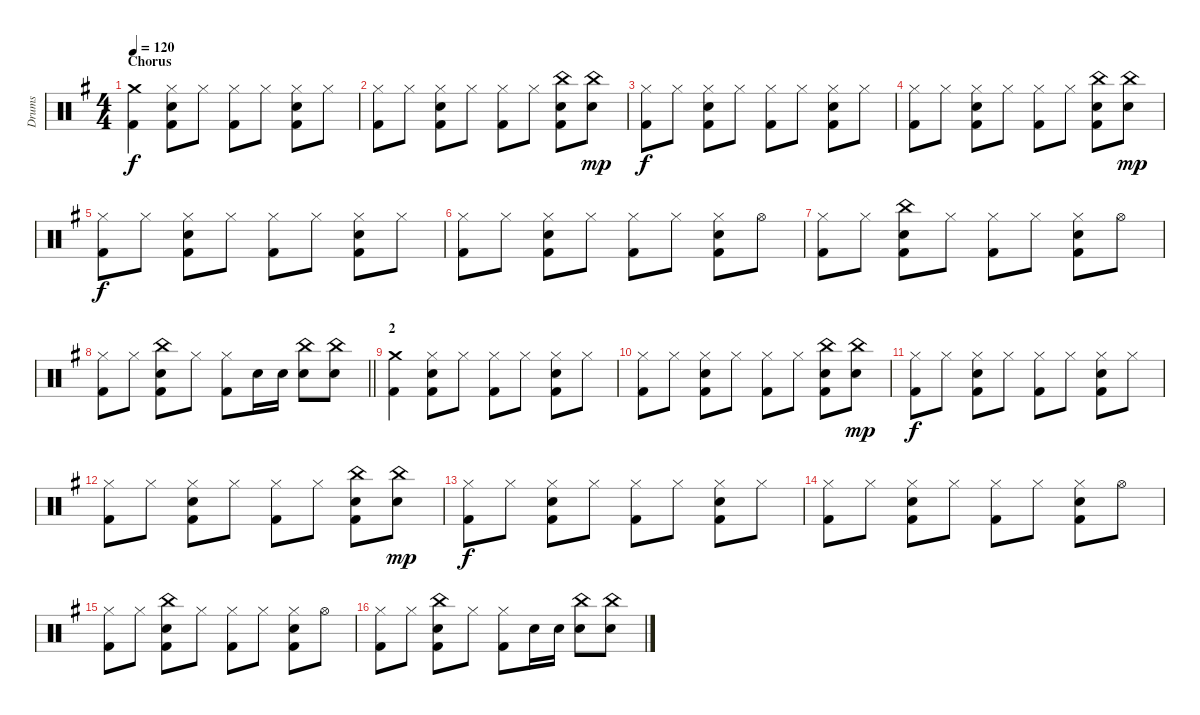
\track ("Drums" "Drums") {instrument percussion}
\staff {score}
\articulation defaults
\ts (4 4)
\section ("" "Chorus")
\tempo 120
\clef neutral
\ks g
("Crash medium (hit)" "Kick (hit) 2").4{dy f} ("Hi-Hat (closed)" "Electric Snare (hit)" "Kick (hit) 2").8 "Hi-Hat (closed)".8 ("Hi-Hat (closed)" "Kick (hit) 2").8 "Hi-Hat (closed)".8 ("Hi-Hat (closed)" "Electric Snare (hit)" "Kick (hit) 2").8 "Hi-Hat (closed)".8 |
("Hi-Hat (closed)" "Kick (hit) 2").8 "Hi-Hat (closed)".8 ("Hi-Hat (closed)" "Electric Snare (hit)" "Kick (hit) 2").8 "Hi-Hat (closed)".8 ("Hi-Hat (closed)" "Kick (hit) 2").8 "Hi-Hat (closed)".8 ("China (hit)" "Electric Snare (hit)" "Kick (hit) 2").8 ("China (hit)" "Electric Snare (hit)").8{dy mp} |
("Hi-Hat (closed)" "Kick (hit) 2").8{dy f} "Hi-Hat (closed)".8 ("Hi-Hat (closed)" "Electric Snare (hit)" "Kick (hit) 2").8 "Hi-Hat (closed)".8 ("Hi-Hat (closed)" "Kick (hit) 2").8 "Hi-Hat (closed)".8 ("Hi-Hat (closed)" "Electric Snare (hit)" "Kick (hit) 2").8 "Hi-Hat (closed)".8 |
("Hi-Hat (closed)" "Kick (hit) 2").8 "Hi-Hat (closed)".8 ("Hi-Hat (closed)" "Electric Snare (hit)" "Kick (hit) 2").8 "Hi-Hat (closed)".8 ("Hi-Hat (closed)" "Kick (hit) 2").8 "Hi-Hat (closed)".8 ("China (hit)" "Electric Snare (hit)" "Kick (hit) 2").8 ("China (hit)" "Electric Snare (hit)").8{dy mp} |
("Hi-Hat (closed)" "Kick (hit) 2").8{dy f} "Hi-Hat (closed)".8 ("Hi-Hat (closed)" "Electric Snare (hit)" "Kick (hit) 2").8 "Hi-Hat (closed)".8 ("Hi-Hat (closed)" "Kick (hit) 2").8 "Hi-Hat (closed)".8 ("Hi-Hat (closed)" "Electric Snare (hit)" "Kick (hit) 2").8 "Hi-Hat (closed)".8 |
("Hi-Hat (closed)" "Kick (hit) 2").8 "Hi-Hat (closed)".8 ("Hi-Hat (closed)" "Electric Snare (hit)" "Kick (hit) 2").8 "Hi-Hat (closed)".8 ("Hi-Hat (closed)" "Kick (hit) 2").8 "Hi-Hat (closed)".8 ("Hi-Hat (closed)" "Electric Snare (hit)" "Kick (hit) 2").8 "Hi-Hat (open)".8 |
("Hi-Hat (closed)" "Kick (hit) 2").8 "Hi-Hat (closed)".8 ("China (hit)" "Electric Snare (hit)" "Kick (hit) 2").8 "Hi-Hat (closed)".8 ("Hi-Hat (closed)" "Kick (hit) 2").8 "Hi-Hat (closed)".8 ("Hi-Hat (closed)" "Electric Snare (hit)" "Kick (hit) 2").8 "Hi-Hat (open)".8 |
\barLineRight lightlight
("Hi-Hat (closed)" "Kick (hit) 2").8 "Hi-Hat (closed)".8 ("China (hit)" "Electric Snare (hit)" "Kick (hit) 2").8 "Hi-Hat (closed)".8 ("Hi-Hat (closed)" "Kick (hit) 2").8 "Electric Snare (hit)".16 "Electric Snare (hit)".16 ("China (hit)" "Electric Snare (hit)").8 ("China (hit)" "Electric Snare (hit)").8 |
\section ("" "2")
("Crash medium (hit)" "Kick (hit) 2").4 ("Hi-Hat (closed)" "Electric Snare (hit)" "Kick (hit) 2").8 "Hi-Hat (closed)".8 ("Hi-Hat (closed)" "Kick (hit) 2").8 "Hi-Hat (closed)".8 ("Hi-Hat (closed)" "Electric Snare (hit)" "Kick (hit) 2").8 "Hi-Hat (closed)".8 |
("Hi-Hat (closed)" "Kick (hit) 2").8 "Hi-Hat (closed)".8 ("Hi-Hat (closed)" "Electric Snare (hit)" "Kick (hit) 2").8 "Hi-Hat (closed)".8 ("Hi-Hat (closed)" "Kick (hit) 2").8 "Hi-Hat (closed)".8 ("China (hit)" "Electric Snare (hit)" "Kick (hit) 2").8 ("China (hit)" "Electric Snare (hit)").8{dy mp} |
("Hi-Hat (closed)" "Kick (hit) 2").8{dy f} "Hi-Hat (closed)".8 ("Hi-Hat (closed)" "Electric Snare (hit)" "Kick (hit) 2").8 "Hi-Hat (closed)".8 ("Hi-Hat (closed)" "Kick (hit) 2").8 "Hi-Hat (closed)".8 ("Hi-Hat (closed)" "Electric Snare (hit)" "Kick (hit) 2").8 "Hi-Hat (closed)".8 |
("Hi-Hat (closed)" "Kick (hit) 2").8 "Hi-Hat (closed)".8 ("Hi-Hat (closed)" "Electric Snare (hit)" "Kick (hit) 2").8 "Hi-Hat (closed)".8 ("Hi-Hat (closed)" "Kick (hit) 2").8 "Hi-Hat (closed)".8 ("China (hit)" "Electric Snare (hit)" "Kick (hit) 2").8 ("China (hit)" "Electric Snare (hit)").8{dy mp} |
("Hi-Hat (closed)" "Kick (hit) 2").8{dy f} "Hi-Hat (closed)".8 ("Hi-Hat (closed)" "Electric Snare (hit)" "Kick (hit) 2").8 "Hi-Hat (closed)".8 ("Hi-Hat (closed)" "Kick (hit) 2").8 "Hi-Hat (closed)".8 ("Hi-Hat (closed)" "Electric Snare (hit)" "Kick (hit) 2").8 "Hi-Hat (closed)".8 |
("Hi-Hat (closed)" "Kick (hit) 2").8 "Hi-Hat (closed)".8 ("Hi-Hat (closed)" "Electric Snare (hit)" "Kick (hit) 2").8 "Hi-Hat (closed)".8 ("Hi-Hat (closed)" "Kick (hit) 2").8 "Hi-Hat (closed)".8 ("Hi-Hat (closed)" "Electric Snare (hit)" "Kick (hit) 2").8 "Hi-Hat (open)".8 |
("Hi-Hat (closed)" "Kick (hit) 2").8 "Hi-Hat (closed)".8 ("China (hit)" "Electric Snare (hit)" "Kick (hit) 2").8 "Hi-Hat (closed)".8 ("Hi-Hat (closed)" "Kick (hit) 2").8 "Hi-Hat (closed)".8 ("Hi-Hat (closed)" "Electric Snare (hit)" "Kick (hit) 2").8 "Hi-Hat (open)".8 |
("Hi-Hat (closed)" "Kick (hit) 2").8 "Hi-Hat (closed)".8 ("China (hit)" "Electric Snare (hit)" "Kick (hit) 2").8 "Hi-Hat (closed)".8 ("Hi-Hat (closed)" "Kick (hit) 2").8 "Electric Snare (hit)".16 "Electric Snare (hit)".16 ("China (hit)" "Electric Snare (hit)").8 ("China (hit)" "Electric Snare (hit)").8
